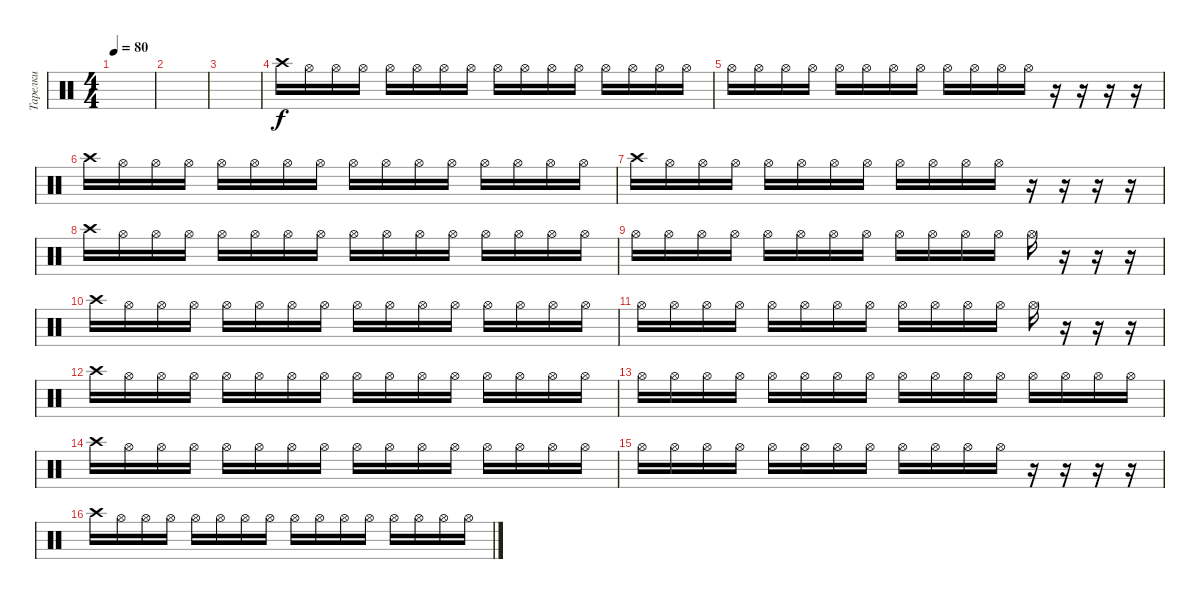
\track ("Тарелки" "Тарелки") {instrument percussion}
\staff {score}
\articulation defaults
\ts (4 4)
\tempo 80
\clef neutral
\ks c
|
|
|
"Crash high (hit)".16 "Hi-Hat (open)".16 "Hi-Hat (open)".16 "Hi-Hat (open)".16 "Hi-Hat (open)".16 "Hi-Hat (open)".16 "Hi-Hat (open)".16 "Hi-Hat (open)".16 "Hi-Hat (open)".16 "Hi-Hat (open)".16 "Hi-Hat (open)".16 "Hi-Hat (open)".16 "Hi-Hat (open)".16 "Hi-Hat (open)".16 "Hi-Hat (open)".16 "Hi-Hat (open)".16 |
"Hi-Hat (open)".16 "Hi-Hat (open)".16 "Hi-Hat (open)".16 "Hi-Hat (open)".16 "Hi-Hat (open)".16 "Hi-Hat (open)".16 "Hi-Hat (open)".16 "Hi-Hat (open)".16 "Hi-Hat (open)".16 "Hi-Hat (open)".16 "Hi-Hat (open)".16 "Hi-Hat (open)".16 r.16 r.16 r.16 r.16 |
"Crash high (hit)".16 "Hi-Hat (open)".16 "Hi-Hat (open)".16 "Hi-Hat (open)".16 "Hi-Hat (open)".16 "Hi-Hat (open)".16 "Hi-Hat (open)".16 "Hi-Hat (open)".16 "Hi-Hat (open)".16 "Hi-Hat (open)".16 "Hi-Hat (open)".16 "Hi-Hat (open)".16 "Hi-Hat (open)".16 "Hi-Hat (open)".16 "Hi-Hat (open)".16 "Hi-Hat (open)".16 |
"Crash high (hit)".16 "Hi-Hat (open)".16 "Hi-Hat (open)".16 "Hi-Hat (open)".16 "Hi-Hat (open)".16 "Hi-Hat (open)".16 "Hi-Hat (open)".16 "Hi-Hat (open)".16 "Hi-Hat (open)".16 "Hi-Hat (open)".16 "Hi-Hat (open)".16 "Hi-Hat (open)".16 r.16 r.16 r.16 r.16 |
"Crash high (hit)".16 "Hi-Hat (open)".16 "Hi-Hat (open)".16 "Hi-Hat (open)".16 "Hi-Hat (open)".16 "Hi-Hat (open)".16 "Hi-Hat (open)".16 "Hi-Hat (open)".16 "Hi-Hat (open)".16 "Hi-Hat (open)".16 "Hi-Hat (open)".16 "Hi-Hat (open)".16 "Hi-Hat (open)".16 "Hi-Hat (open)".16 "Hi-Hat (open)".16 "Hi-Hat (open)".16 |
"Hi-Hat (open)".16 "Hi-Hat (open)".16 "Hi-Hat (open)".16 "Hi-Hat (open)".16 "Hi-Hat (open)".16 "Hi-Hat (open)".16 "Hi-Hat (open)".16 "Hi-Hat (open)".16 "Hi-Hat (open)".16 "Hi-Hat (open)".16 "Hi-Hat (open)".16 "Hi-Hat (open)".16 "Hi-Hat (open)".16 r.16 r.16 r.16 |
"Crash high (hit)".16 "Hi-Hat (open)".16 "Hi-Hat (open)".16 "Hi-Hat (open)".16 "Hi-Hat (open)".16 "Hi-Hat (open)".16 "Hi-Hat (open)".16 "Hi-Hat (open)".16 "Hi-Hat (open)".16 "Hi-Hat (open)".16 "Hi-Hat (open)".16 "Hi-Hat (open)".16 "Hi-Hat (open)".16 "Hi-Hat (open)".16 "Hi-Hat (open)".16 "Hi-Hat (open)".16 |
"Hi-Hat (open)".16 "Hi-Hat (open)".16 "Hi-Hat (open)".16 "Hi-Hat (open)".16 "Hi-Hat (open)".16 "Hi-Hat (open)".16 "Hi-Hat (open)".16 "Hi-Hat (open)".16 "Hi-Hat (open)".16 "Hi-Hat (open)".16 "Hi-Hat (open)".16 "Hi-Hat (open)".16 "Hi-Hat (open)".16 r.16 r.16 r.16 |
"Crash high (hit)".16 "Hi-Hat (open)".16 "Hi-Hat (open)".16 "Hi-Hat (open)".16 "Hi-Hat (open)".16 "Hi-Hat (open)".16 "Hi-Hat (open)".16 "Hi-Hat (open)".16 "Hi-Hat (open)".16 "Hi-Hat (open)".16 "Hi-Hat (open)".16 "Hi-Hat (open)".16 "Hi-Hat (open)".16 "Hi-Hat (open)".16 "Hi-Hat (open)".16 "Hi-Hat (open)".16 |
"Hi-Hat (open)".16 "Hi-Hat (open)".16 "Hi-Hat (open)".16 "Hi-Hat (open)".16 "Hi-Hat (open)".16 "Hi-Hat (open)".16 "Hi-Hat (open)".16 "Hi-Hat (open)".16 "Hi-Hat (open)".16 "Hi-Hat (open)".16 "Hi-Hat (open)".16 "Hi-Hat (open)".16 "Hi-Hat (open)".16 "Hi-Hat (open)".16 "Hi-Hat (open)".16 "Hi-Hat (open)".16 |
"Crash high (hit)".16 "Hi-Hat (open)".16 "Hi-Hat (open)".16 "Hi-Hat (open)".16 "Hi-Hat (open)".16 "Hi-Hat (open)".16 "Hi-Hat (open)".16 "Hi-Hat (open)".16 "Hi-Hat (open)".16 "Hi-Hat (open)".16 "Hi-Hat (open)".16 "Hi-Hat (open)".16 "Hi-Hat (open)".16 "Hi-Hat (open)".16 "Hi-Hat (open)".16 "Hi-Hat (open)".16 |
"Hi-Hat (open)".16 "Hi-Hat (open)".16 "Hi-Hat (open)".16 "Hi-Hat (open)".16 "Hi-Hat (open)".16 "Hi-Hat (open)".16 "Hi-Hat (open)".16 "Hi-Hat (open)".16 "Hi-Hat (open)".16 "Hi-Hat (open)".16 "Hi-Hat (open)".16 "Hi-Hat (open)".16 r.16 r.16 r.16 r.16 |
"Crash high (hit)".16 "Hi-Hat (open)".16 "Hi-Hat (open)".16 "Hi-Hat (open)".16 "Hi-Hat (open)".16 "Hi-Hat (open)".16 "Hi-Hat (open)".16 "Hi-Hat (open)".16 "Hi-Hat (open)".16 "Hi-Hat (open)".16 "Hi-Hat (open)".16 "Hi-Hat (open)".16 "Hi-Hat (open)".16 "Hi-Hat (open)".16 "Hi-Hat (open)".16 "Hi-Hat (open)".16
